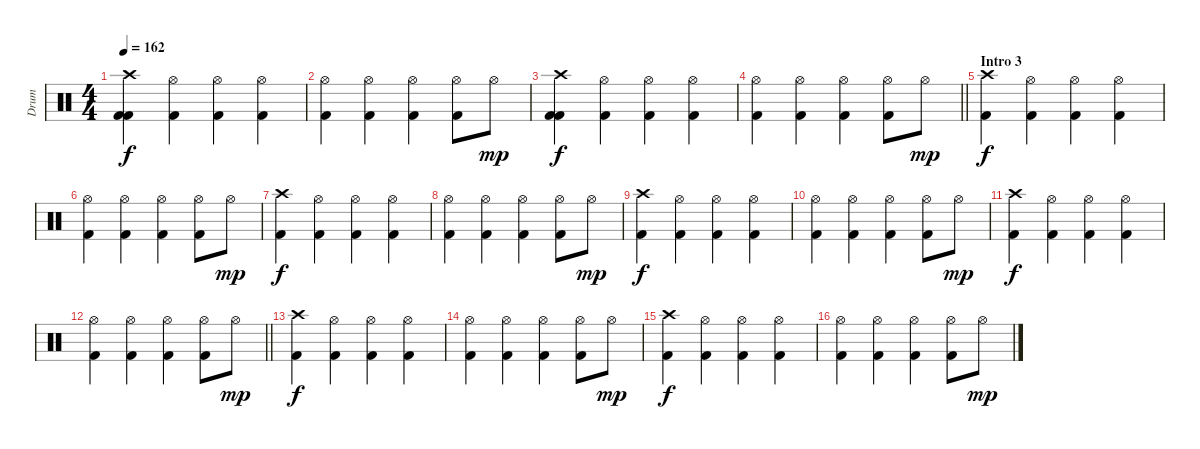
\track ("Drum" "Drum") {instrument percussion}
\staff {score}
\articulation defaults
\ts (4 4)
\tempo 162
\clef neutral
\ks c
("Crash high (hit)" "Kick (hit) 2" "Kick (hit) 2").4{dy f} ("Hi-Hat (open)" "Kick (hit) 2").4 ("Hi-Hat (open)" "Kick (hit) 2").4 ("Hi-Hat (open)" "Kick (hit) 2").4 |
("Hi-Hat (open)" "Kick (hit) 2").4 ("Hi-Hat (open)" "Kick (hit) 2").4 ("Hi-Hat (open)" "Kick (hit) 2").4 ("Hi-Hat (open)" "Kick (hit) 2").8 "Hi-Hat (open)".8{dy mp} |
("Crash high (hit)" "Kick (hit) 2" "Kick (hit) 2").4{dy f} ("Hi-Hat (open)" "Kick (hit) 2").4 ("Hi-Hat (open)" "Kick (hit) 2").4 ("Hi-Hat (open)" "Kick (hit) 2").4 |
\barLineRight lightlight
("Hi-Hat (open)" "Kick (hit) 2").4 ("Hi-Hat (open)" "Kick (hit) 2").4 ("Hi-Hat (open)" "Kick (hit) 2").4 ("Hi-Hat (open)" "Kick (hit) 2").8 "Hi-Hat (open)".8{dy mp} |
\section ("" "Intro 3")
("Crash high (hit)" "Kick (hit) 2").4{dy f} ("Hi-Hat (open)" "Kick (hit) 2").4 ("Hi-Hat (open)" "Kick (hit) 2").4 ("Hi-Hat (open)" "Kick (hit) 2").4 |
("Hi-Hat (open)" "Kick (hit) 2").4 ("Hi-Hat (open)" "Kick (hit) 2").4 ("Hi-Hat (open)" "Kick (hit) 2").4 ("Hi-Hat (open)" "Kick (hit) 2").8 "Hi-Hat (open)".8{dy mp} |
("Crash high (hit)" "Kick (hit) 2").4{dy f} ("Hi-Hat (open)" "Kick (hit) 2").4 ("Hi-Hat (open)" "Kick (hit) 2").4 ("Hi-Hat (open)" "Kick (hit) 2").4 |
("Hi-Hat (open)" "Kick (hit) 2").4 ("Hi-Hat (open)" "Kick (hit) 2").4 ("Hi-Hat (open)" "Kick (hit) 2").4 ("Hi-Hat (open)" "Kick (hit) 2").8 "Hi-Hat (open)".8{dy mp} |
("Crash high (hit)" "Kick (hit) 2").4{dy f} ("Hi-Hat (open)" "Kick (hit) 2").4 ("Hi-Hat (open)" "Kick (hit) 2").4 ("Hi-Hat (open)" "Kick (hit) 2").4 |
("Hi-Hat (open)" "Kick (hit) 2").4 ("Hi-Hat (open)" "Kick (hit) 2").4 ("Hi-Hat (open)" "Kick (hit) 2").4 ("Hi-Hat (open)" "Kick (hit) 2").8 "Hi-Hat (open)".8{dy mp} |
("Crash high (hit)" "Kick (hit) 2").4{dy f} ("Hi-Hat (open)" "Kick (hit) 2").4 ("Hi-Hat (open)" "Kick (hit) 2").4 ("Hi-Hat (open)" "Kick (hit) 2").4 |
\barLineRight lightlight
("Hi-Hat (open)" "Kick (hit) 2").4 ("Hi-Hat (open)" "Kick (hit) 2").4 ("Hi-Hat (open)" "Kick (hit) 2").4 ("Hi-Hat (open)" "Kick (hit) 2").8 "Hi-Hat (open)".8{dy mp} |
\section ("" "")
("Crash high (hit)" "Kick (hit) 2").4{dy f} ("Hi-Hat (open)" "Kick (hit) 2").4 ("Hi-Hat (open)" "Kick (hit) 2").4 ("Hi-Hat (open)" "Kick (hit) 2").4 |
("Hi-Hat (open)" "Kick (hit) 2").4 ("Hi-Hat (open)" "Kick (hit) 2").4 ("Hi-Hat (open)" "Kick (hit) 2").4 ("Hi-Hat (open)" "Kick (hit) 2").8 "Hi-Hat (open)".8{dy mp} |
("Crash high (hit)" "Kick (hit) 2").4{dy f} ("Hi-Hat (open)" "Kick (hit) 2").4 ("Hi-Hat (open)" "Kick (hit) 2").4 ("Hi-Hat (open)" "Kick (hit) 2").4 |
("Hi-Hat (open)" "Kick (hit) 2").4 ("Hi-Hat (open)" "Kick (hit) 2").4 ("Hi-Hat (open)" "Kick (hit) 2").4 ("Hi-Hat (open)" "Kick (hit) 2").8 "Hi-Hat (open)".8{dy mp}
